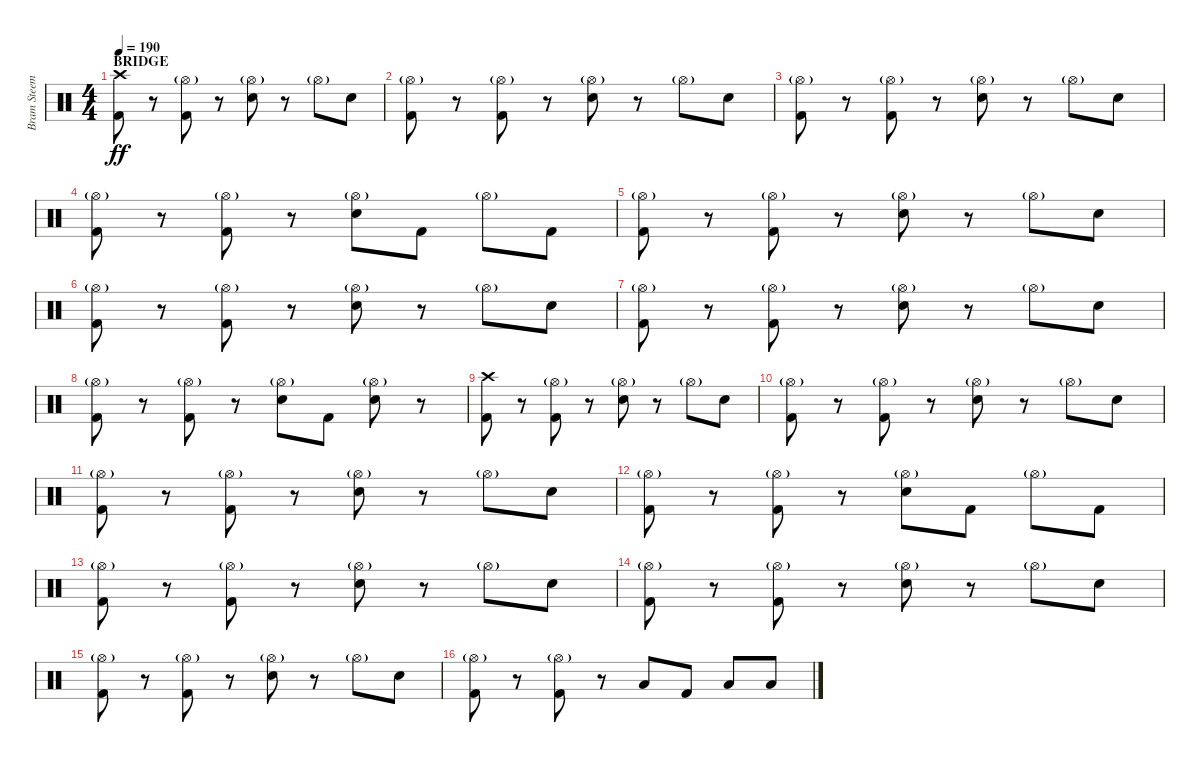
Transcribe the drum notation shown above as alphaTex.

\track ("Bram Steemans" "Bram Steem") {instrument percussion}
\staff {score}
\articulation defaults
\ts (4 4)
\section ("" "BRIDGE ")
\tempo 190
\clef neutral
\ks c
("Crash high (hit)" "Kick (hit) 2").8{dy ff} r.8 ("Hi-Hat (open)"{g} "Kick (hit) 2").8 r.8 ("Hi-Hat (open)"{g} "Snare (hit) 2").8 r.8 "Hi-Hat (open)"{g}.8 "Snare (hit) 2".8 |
("Hi-Hat (open)"{g} "Kick (hit) 2").8 r.8 ("Hi-Hat (open)"{g} "Kick (hit) 2").8 r.8 ("Hi-Hat (open)"{g} "Snare (hit) 2").8 r.8 "Hi-Hat (open)"{g}.8 "Snare (hit) 2".8 |
("Hi-Hat (open)"{g} "Kick (hit) 2").8 r.8 ("Hi-Hat (open)"{g} "Kick (hit) 2").8 r.8 ("Hi-Hat (open)"{g} "Snare (hit) 2").8 r.8 "Hi-Hat (open)"{g}.8 "Snare (hit) 2".8 |
("Hi-Hat (open)"{g} "Kick (hit) 2").8 r.8 ("Hi-Hat (open)"{g} "Kick (hit) 2").8 r.8 ("Hi-Hat (open)"{g} "Snare (hit) 2").8 "Kick (hit) 2".8 "Hi-Hat (open)"{g}.8 "Kick (hit) 2".8 |
("Hi-Hat (open)"{g} "Kick (hit) 2").8 r.8 ("Hi-Hat (open)"{g} "Kick (hit) 2").8 r.8 ("Hi-Hat (open)"{g} "Snare (hit) 2").8 r.8 "Hi-Hat (open)"{g}.8 "Snare (hit) 2".8 |
("Hi-Hat (open)"{g} "Kick (hit) 2").8 r.8 ("Hi-Hat (open)"{g} "Kick (hit) 2").8 r.8 ("Hi-Hat (open)"{g} "Snare (hit) 2").8 r.8 "Hi-Hat (open)"{g}.8 "Snare (hit) 2".8 |
("Hi-Hat (open)"{g} "Kick (hit) 2").8 r.8 ("Hi-Hat (open)"{g} "Kick (hit) 2").8 r.8 ("Hi-Hat (open)"{g} "Snare (hit) 2").8 r.8 "Hi-Hat (open)"{g}.8 "Snare (hit) 2".8 |
("Hi-Hat (open)"{g} "Kick (hit) 2").8 r.8 ("Hi-Hat (open)"{g} "Kick (hit) 2").8 r.8 ("Hi-Hat (open)"{g} "Snare (hit) 2").8 "Kick (hit) 2".8 ("Hi-Hat (open)"{g} "Snare (hit) 2").8 r.8 |
("Crash high (hit)" "Kick (hit) 2").8 r.8 ("Hi-Hat (open)"{g} "Kick (hit) 2").8 r.8 ("Hi-Hat (open)"{g} "Snare (hit) 2").8 r.8 "Hi-Hat (open)"{g}.8 "Snare (hit) 2".8 |
("Hi-Hat (open)"{g} "Kick (hit) 2").8 r.8 ("Hi-Hat (open)"{g} "Kick (hit) 2").8 r.8 ("Hi-Hat (open)"{g} "Snare (hit) 2").8 r.8 "Hi-Hat (open)"{g}.8 "Snare (hit) 2".8 |
("Hi-Hat (open)"{g} "Kick (hit) 2").8 r.8 ("Hi-Hat (open)"{g} "Kick (hit) 2").8 r.8 ("Hi-Hat (open)"{g} "Snare (hit) 2").8 r.8 "Hi-Hat (open)"{g}.8 "Snare (hit) 2".8 |
("Hi-Hat (open)"{g} "Kick (hit) 2").8 r.8 ("Hi-Hat (open)"{g} "Kick (hit) 2").8 r.8 ("Hi-Hat (open)"{g} "Snare (hit) 2").8 "Kick (hit) 2".8 "Hi-Hat (open)"{g}.8 "Kick (hit) 2".8 |
("Hi-Hat (open)"{g} "Kick (hit) 2").8 r.8 ("Hi-Hat (open)"{g} "Kick (hit) 2").8 r.8 ("Hi-Hat (open)"{g} "Snare (hit) 2").8 r.8 "Hi-Hat (open)"{g}.8 "Snare (hit) 2".8 |
("Hi-Hat (open)"{g} "Kick (hit) 2").8 r.8 ("Hi-Hat (open)"{g} "Kick (hit) 2").8 r.8 ("Hi-Hat (open)"{g} "Snare (hit) 2").8 r.8 "Hi-Hat (open)"{g}.8 "Snare (hit) 2".8 |
("Hi-Hat (open)"{g} "Kick (hit) 2").8 r.8 ("Hi-Hat (open)"{g} "Kick (hit) 2").8 r.8 ("Hi-Hat (open)"{g} "Snare (hit) 2").8 r.8 "Hi-Hat (open)"{g}.8 "Snare (hit) 2".8 |
("Hi-Hat (open)"{g} "Kick (hit) 2").8 r.8 ("Hi-Hat (open)"{g} "Kick (hit) 2").8 r.8 "Low Floor Tom (hit)".8 "Kick (hit) 2".8 "Low Tom (hit)".8 "Low Floor Tom (hit)".8
